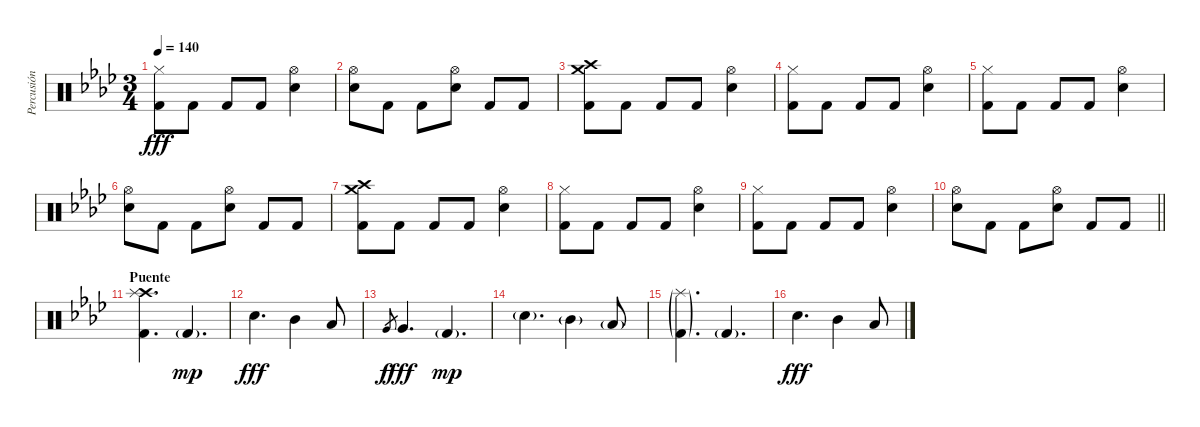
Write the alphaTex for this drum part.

\track ("Percusión" "Percusión") {instrument percussion}
\staff {score}
\articulation defaults
\ts (3 4)
\tempo 140
\clef neutral
\ks fminor
("Hi-Hat (closed)" "Kick (hit) 2").8{dy fff} "Kick (hit) 2".8 "Kick (hit) 2".8 "Kick (hit) 2".8 ("Hi-Hat (open)" "Snare (hit) 2").4 |
("Hi-Hat (open)" "Snare (hit) 2").8 "Kick (hit) 2".8 "Kick (hit) 2".8 ("Hi-Hat (open)" "Snare (hit) 2").8 "Kick (hit) 2".8 "Kick (hit) 2".8 |
("Crash high (hit)" "Crash medium (hit)" "Kick (hit) 2").8 "Kick (hit) 2".8 "Kick (hit) 2".8 "Kick (hit) 2".8 ("Hi-Hat (open)" "Snare (hit) 2").4 |
("Hi-Hat (closed)" "Kick (hit) 2").8 "Kick (hit) 2".8 "Kick (hit) 2".8 "Kick (hit) 2".8 ("Hi-Hat (open)" "Snare (hit) 2").4 |
("Hi-Hat (closed)" "Kick (hit) 2").8 "Kick (hit) 2".8 "Kick (hit) 2".8 "Kick (hit) 2".8 ("Hi-Hat (open)" "Snare (hit) 2").4 |
("Hi-Hat (open)" "Snare (hit) 2").8 "Kick (hit) 2".8 "Kick (hit) 2".8 ("Hi-Hat (open)" "Snare (hit) 2").8 "Kick (hit) 2".8 "Kick (hit) 2".8 |
("Crash high (hit)" "Crash medium (hit)" "Kick (hit) 2").8 "Kick (hit) 2".8 "Kick (hit) 2".8 "Kick (hit) 2".8 ("Hi-Hat (open)" "Snare (hit) 2").4 |
("Hi-Hat (closed)" "Kick (hit) 2").8 "Kick (hit) 2".8 "Kick (hit) 2".8 "Kick (hit) 2".8 ("Hi-Hat (open)" "Snare (hit) 2").4 |
("Hi-Hat (closed)" "Kick (hit) 2").8 "Kick (hit) 2".8 "Kick (hit) 2".8 "Kick (hit) 2".8 ("Hi-Hat (open)" "Snare (hit) 2").4 |
\barLineRight lightlight
("Hi-Hat (open)" "Snare (hit) 2").8 "Kick (hit) 2".8 "Kick (hit) 2".8 ("Hi-Hat (open)" "Snare (hit) 2").8 "Kick (hit) 2".8 "Kick (hit) 2".8 |
\section ("" "Puente")
("Crash high (hit)" "Splash (hit)" "Kick (hit) 2").4{d} "Kick (hit) 2"{g}.4{d dy mp} |
"Electric Snare (hit)".4{d dy fff} "Mid Tom (hit)".4 "Low Tom (hit)".8 |
"Very Low Tom (hit)".8{gr dy f} "Very Low Tom (hit)".4{d dy fff} "Kick (hit) 2"{g}.4{d dy mp} |
"Electric Snare (hit)"{g}.4{d} "Mid Tom (hit)"{g}.4 "Low Tom (hit)"{g}.8 |
("Splash (hit)"{g} "Kick (hit) 2"{g}).4{d} "Kick (hit) 2"{g}.4{d} |
"Electric Snare (hit)".4{d dy fff} "Mid Tom (hit)".4 "Low Tom (hit)".8
